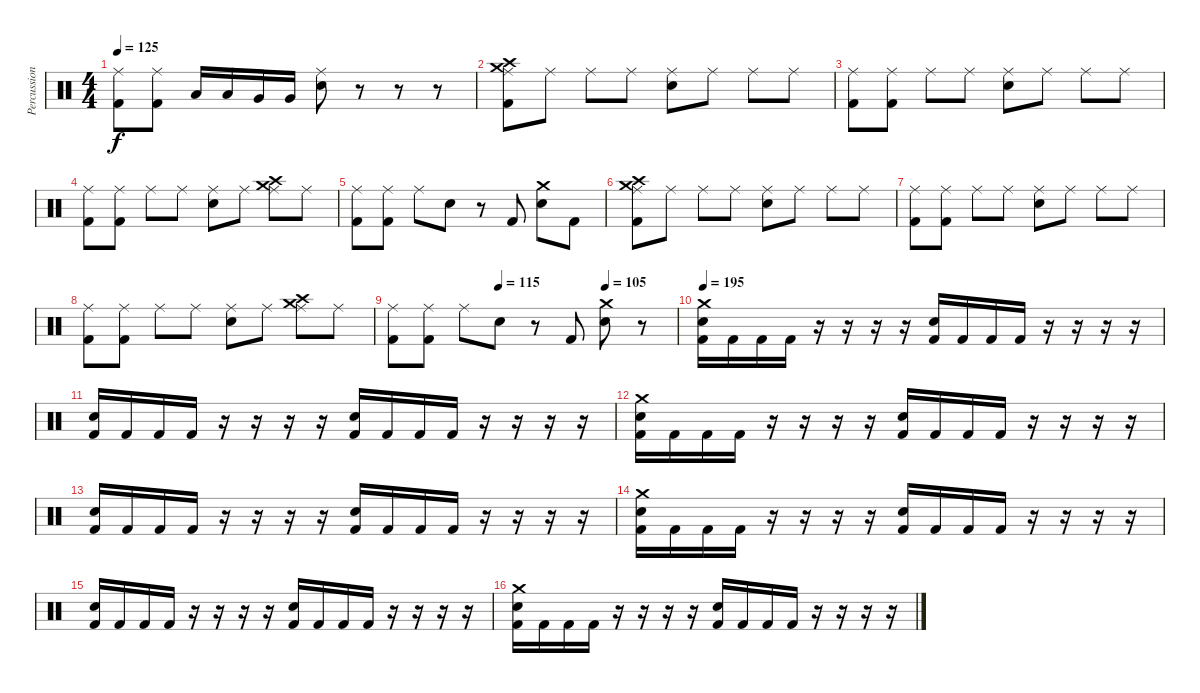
\track ("Percussion" "Percussion") {instrument percussion}
\staff {score}
\articulation defaults
\ts (4 4)
\tempo 125
\clef neutral
\ks c
("Ride (middle)" "Kick (hit) 2").8{dy f} ("Ride (middle)" "Kick (hit) 2").8 "Low Floor Tom (hit)".16 "Low Floor Tom (hit)".16 "Very Low Tom (hit)".16 "Very Low Tom (hit)".16 ("Ride (middle)" "Snare (hit) 2").8 r.8 r.8 r.8 |
("Crash medium (hit)" "Ride (middle)" "Crash high (hit)" "Kick (hit) 2").8 "Ride (middle)".8 "Ride (middle)".8 "Ride (middle)".8 ("Ride (middle)" "Snare (hit) 2").8 "Ride (middle)".8 "Ride (middle)".8 "Ride (middle)".8 |
("Ride (middle)" "Kick (hit) 2").8 ("Ride (middle)" "Kick (hit) 2").8 "Ride (middle)".8 "Ride (middle)".8 ("Ride (middle)" "Snare (hit) 2").8 "Ride (middle)".8 "Ride (middle)".8 "Ride (middle)".8 |
("Ride (middle)" "Kick (hit) 2").8 ("Ride (middle)" "Kick (hit) 2").8 "Ride (middle)".8 "Ride (middle)".8 ("Ride (middle)" "Snare (hit) 2").8 "Ride (middle)".8 ("Crash medium (hit)" "Ride (middle)" "Crash high (hit)").8 "Ride (middle)".8 |
("Ride (middle)" "Kick (hit) 2").8 ("Ride (middle)" "Kick (hit) 2").8 "Ride (middle)".8 "Snare (hit) 2".8 r.8 "Kick (hit) 2".8 ("Crash medium (hit)" "Snare (hit) 2").8 "Kick (hit) 2".8 |
("Crash medium (hit)" "Ride (middle)" "Crash high (hit)" "Kick (hit) 2").8 "Ride (middle)".8 "Ride (middle)".8 "Ride (middle)".8 ("Ride (middle)" "Snare (hit) 2").8 "Ride (middle)".8 "Ride (middle)".8 "Ride (middle)".8 |
("Ride (middle)" "Kick (hit) 2").8 ("Ride (middle)" "Kick (hit) 2").8 "Ride (middle)".8 "Ride (middle)".8 ("Ride (middle)" "Snare (hit) 2").8 "Ride (middle)".8 "Ride (middle)".8 "Ride (middle)".8 |
("Ride (middle)" "Kick (hit) 2").8 ("Ride (middle)" "Kick (hit) 2").8 "Ride (middle)".8 "Ride (middle)".8 ("Ride (middle)" "Snare (hit) 2").8 "Ride (middle)".8 ("Ride (middle)" "Crash high (hit)" "Crash medium (hit)").8 "Ride (middle)".8 |
\tempo (115 0.375)
\tempo (105 0.75)
("Ride (middle)" "Kick (hit) 2").8 ("Ride (middle)" "Kick (hit) 2").8 "Ride (middle)".8 "Snare (hit) 2".8 r.8 "Kick (hit) 2".8 ("Crash medium (hit)" "Snare (hit) 2").8 r.8 |
\tempo 195
("Crash medium (hit)" "Snare (hit) 2" "Kick (hit) 2").16{volume 11} "Kick (hit) 2".16 "Kick (hit) 2".16 "Kick (hit) 2".16 r.16 r.16 r.16 r.16 ("Snare (hit) 2" "Kick (hit) 2").16 "Kick (hit) 2".16 "Kick (hit) 2".16 "Kick (hit) 2".16 r.16 r.16 r.16 r.16 |
("Snare (hit) 2" "Kick (hit) 2").16 "Kick (hit) 2".16 "Kick (hit) 2".16 "Kick (hit) 2".16 r.16 r.16 r.16 r.16 ("Snare (hit) 2" "Kick (hit) 2").16 "Kick (hit) 2".16 "Kick (hit) 2".16 "Kick (hit) 2".16 r.16 r.16 r.16 r.16 |
("Crash medium (hit)" "Snare (hit) 2" "Kick (hit) 2").16{volume 9} "Kick (hit) 2".16 "Kick (hit) 2".16 "Kick (hit) 2".16 r.16 r.16 r.16 r.16 ("Snare (hit) 2" "Kick (hit) 2").16 "Kick (hit) 2".16 "Kick (hit) 2".16 "Kick (hit) 2".16 r.16 r.16 r.16 r.16 |
("Snare (hit) 2" "Kick (hit) 2").16 "Kick (hit) 2".16 "Kick (hit) 2".16 "Kick (hit) 2".16 r.16 r.16 r.16 r.16 ("Snare (hit) 2" "Kick (hit) 2").16 "Kick (hit) 2".16 "Kick (hit) 2".16 "Kick (hit) 2".16 r.16 r.16 r.16 r.16 |
("Crash medium (hit)" "Snare (hit) 2" "Kick (hit) 2").16{volume 8} "Kick (hit) 2".16 "Kick (hit) 2".16 "Kick (hit) 2".16 r.16 r.16 r.16 r.16 ("Snare (hit) 2" "Kick (hit) 2").16 "Kick (hit) 2".16 "Kick (hit) 2".16 "Kick (hit) 2".16 r.16 r.16 r.16 r.16 |
("Snare (hit) 2" "Kick (hit) 2").16 "Kick (hit) 2".16 "Kick (hit) 2".16 "Kick (hit) 2".16 r.16 r.16 r.16 r.16 ("Snare (hit) 2" "Kick (hit) 2").16 "Kick (hit) 2".16 "Kick (hit) 2".16 "Kick (hit) 2".16 r.16 r.16 r.16 r.16 |
("Crash medium (hit)" "Snare (hit) 2" "Kick (hit) 2").16{volume 8} "Kick (hit) 2".16 "Kick (hit) 2".16 "Kick (hit) 2".16 r.16 r.16 r.16 r.16 ("Snare (hit) 2" "Kick (hit) 2").16 "Kick (hit) 2".16 "Kick (hit) 2".16 "Kick (hit) 2".16 r.16 r.16 r.16 r.16
